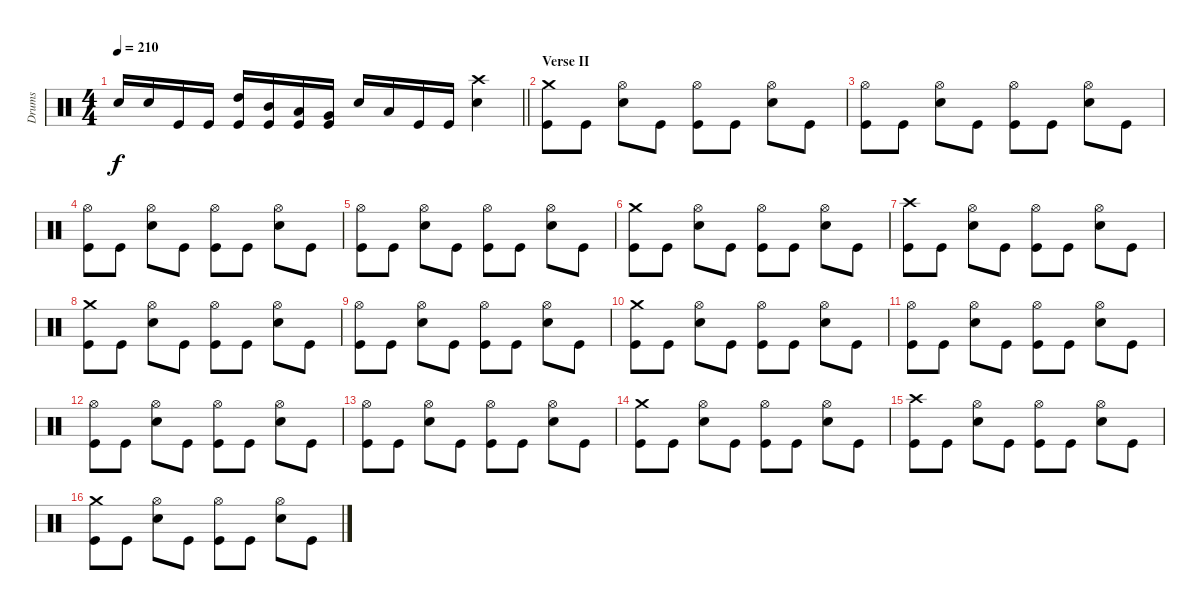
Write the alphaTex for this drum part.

\track ("Drums" "Drums") {instrument percussion}
\staff {score}
\articulation defaults
\ts (4 4)
\tempo 210
\clef neutral
\barLineRight lightlight
\ks c "Snare (hit) 2".16{dy f} "Snare (hit) 2".16 "Kick (hit)".16 "Kick (hit)".16
("High Tom (hit)" "Kick (hit)").16 ("Mid Tom (hit)" "Kick (hit)").16 ("Low Tom (hit)" "Kick (hit)").16 ("Very Low Tom (hit)" "Kick (hit)").16 "Snare (hit) 2".16 "Low Floor Tom (hit)".16 "Kick (hit)".16 "Kick (hit)".16 ("Crash high (hit)" "Snare (hit) 2").4 |
\section ("" "Verse II")
("Crash medium (hit)" "Kick (hit)").8 "Kick (hit)".8 ("Hi-Hat (open)" "Snare (hit) 2").8 "Kick (hit)".8 ("Hi-Hat (open)" "Kick (hit)").8 "Kick (hit)".8 ("Hi-Hat (open)" "Snare (hit) 2").8 "Kick (hit)".8 |
("Hi-Hat (open)" "Kick (hit)").8 "Kick (hit)".8 ("Hi-Hat (open)" "Snare (hit) 2").8 "Kick (hit)".8 ("Hi-Hat (open)" "Kick (hit)").8 "Kick (hit)".8 ("Hi-Hat (open)" "Snare (hit) 2").8 "Kick (hit)".8 |
("Hi-Hat (open)" "Kick (hit)").8 "Kick (hit)".8 ("Hi-Hat (open)" "Snare (hit) 2").8 "Kick (hit)".8 ("Hi-Hat (open)" "Kick (hit)").8 "Kick (hit)".8 ("Hi-Hat (open)" "Snare (hit) 2").8 "Kick (hit)".8 |
("Hi-Hat (open)" "Kick (hit)").8 "Kick (hit)".8 ("Hi-Hat (open)" "Snare (hit) 2").8 "Kick (hit)".8 ("Hi-Hat (open)" "Kick (hit)").8 "Kick (hit)".8 ("Hi-Hat (open)" "Snare (hit) 2").8 "Kick (hit)".8 |
("Crash medium (hit)" "Kick (hit)").8 "Kick (hit)".8 ("Hi-Hat (open)" "Snare (hit) 2").8 "Kick (hit)".8 ("Hi-Hat (open)" "Kick (hit)").8 "Kick (hit)".8 ("Hi-Hat (open)" "Snare (hit) 2").8 "Kick (hit)".8 |
("Crash high (hit)" "Kick (hit)").8 "Kick (hit)".8 ("Hi-Hat (open)" "Snare (hit) 2").8 "Kick (hit)".8 ("Hi-Hat (open)" "Kick (hit)").8 "Kick (hit)".8 ("Hi-Hat (open)" "Snare (hit) 2").8 "Kick (hit)".8 |
("Crash medium (hit)" "Kick (hit)").8 "Kick (hit)".8 ("Hi-Hat (open)" "Snare (hit) 2").8 "Kick (hit)".8 ("Hi-Hat (open)" "Kick (hit)").8 "Kick (hit)".8 ("Hi-Hat (open)" "Snare (hit) 2").8 "Kick (hit)".8 |
("Hi-Hat (open)" "Kick (hit)").8 "Kick (hit)".8 ("Hi-Hat (open)" "Snare (hit) 2").8 "Kick (hit)".8 ("Hi-Hat (open)" "Kick (hit)").8 "Kick (hit)".8 ("Hi-Hat (open)" "Snare (hit) 2").8 "Kick (hit)".8 |
("Crash medium (hit)" "Kick (hit)").8 "Kick (hit)".8 ("Hi-Hat (open)" "Snare (hit) 2").8 "Kick (hit)".8 ("Hi-Hat (open)" "Kick (hit)").8 "Kick (hit)".8 ("Hi-Hat (open)" "Snare (hit) 2").8 "Kick (hit)".8 |
("Hi-Hat (open)" "Kick (hit)").8 "Kick (hit)".8 ("Hi-Hat (open)" "Snare (hit) 2").8 "Kick (hit)".8 ("Hi-Hat (open)" "Kick (hit)").8 "Kick (hit)".8 ("Hi-Hat (open)" "Snare (hit) 2").8 "Kick (hit)".8 |
("Hi-Hat (open)" "Kick (hit)").8 "Kick (hit)".8 ("Hi-Hat (open)" "Snare (hit) 2").8 "Kick (hit)".8 ("Hi-Hat (open)" "Kick (hit)").8 "Kick (hit)".8 ("Hi-Hat (open)" "Snare (hit) 2").8 "Kick (hit)".8 |
("Hi-Hat (open)" "Kick (hit)").8 "Kick (hit)".8 ("Hi-Hat (open)" "Snare (hit) 2").8 "Kick (hit)".8 ("Hi-Hat (open)" "Kick (hit)").8 "Kick (hit)".8 ("Hi-Hat (open)" "Snare (hit) 2").8 "Kick (hit)".8 |
("Crash medium (hit)" "Kick (hit)").8 "Kick (hit)".8 ("Hi-Hat (open)" "Snare (hit) 2").8 "Kick (hit)".8 ("Hi-Hat (open)" "Kick (hit)").8 "Kick (hit)".8 ("Hi-Hat (open)" "Snare (hit) 2").8 "Kick (hit)".8 |
("Crash high (hit)" "Kick (hit)").8 "Kick (hit)".8 ("Hi-Hat (open)" "Snare (hit) 2").8 "Kick (hit)".8 ("Hi-Hat (open)" "Kick (hit)").8 "Kick (hit)".8 ("Hi-Hat (open)" "Snare (hit) 2").8 "Kick (hit)".8 |
("Crash medium (hit)" "Kick (hit)").8 "Kick (hit)".8 ("Hi-Hat (open)" "Snare (hit) 2").8 "Kick (hit)".8 ("Hi-Hat (open)" "Kick (hit)").8 "Kick (hit)".8 ("Hi-Hat (open)" "Snare (hit) 2").8 "Kick (hit)".8
